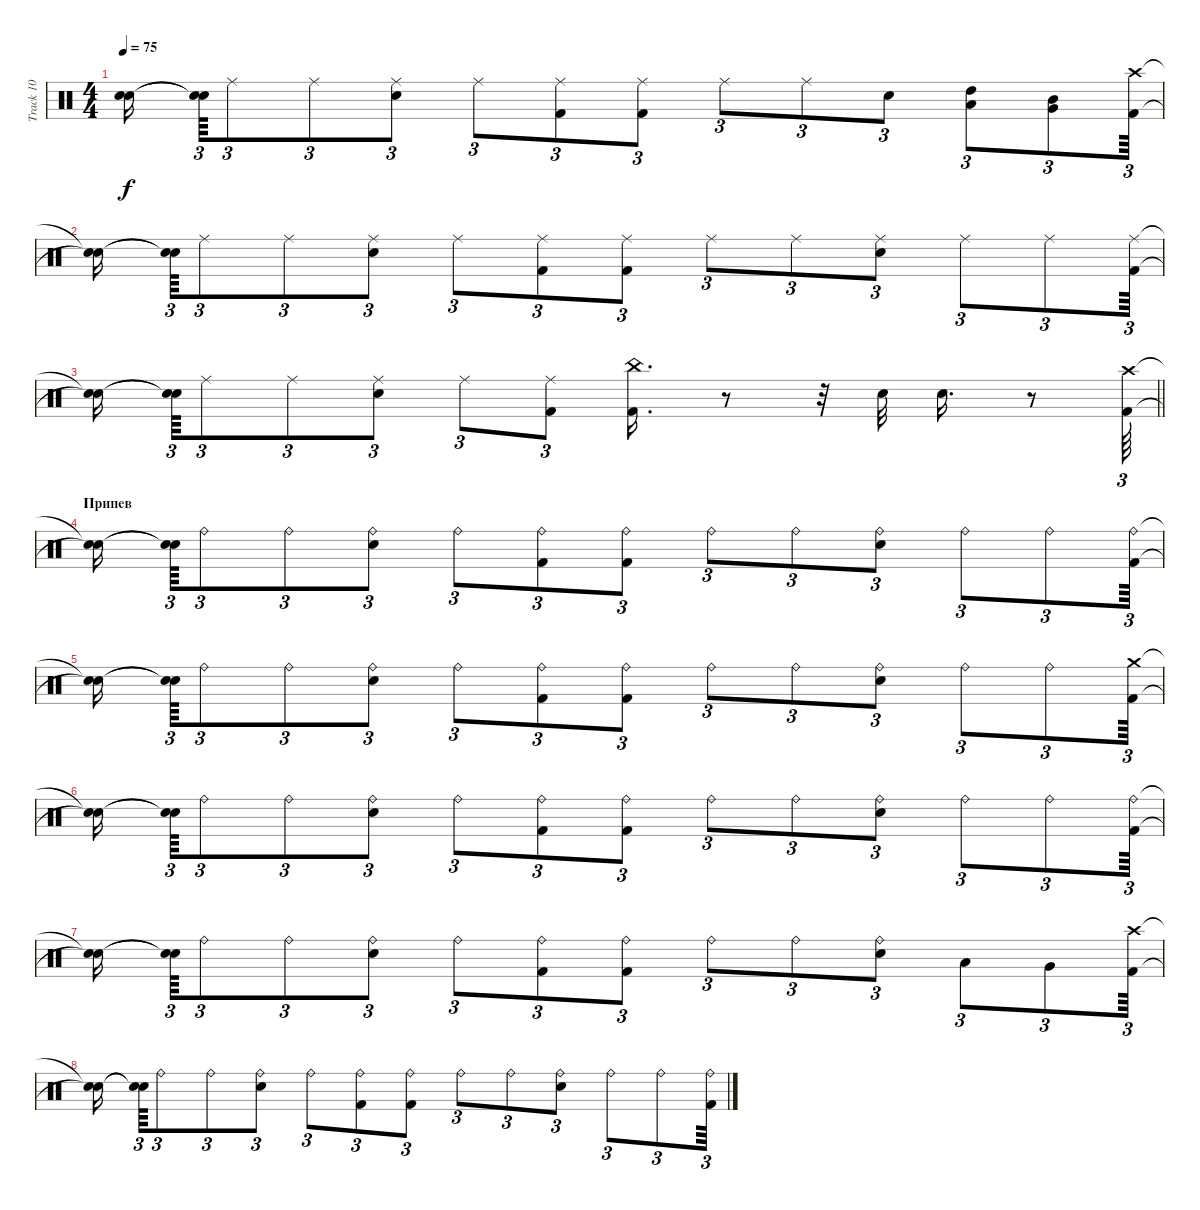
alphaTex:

\track ("Track 10" "Track 10") {instrument percussion}
\staff {score}
\articulation defaults
\ts (4 4)
\tempo 75
\clef neutral
\ks c
("Snare (hit)"{t} "Snare (hit)"{t}).16{dy f beam splitsecondary} ("Snare (hit)"{t} "Snare (hit)"{t}).64{tu (3 2)} "Ride (middle)".8{tu (3 2)} "Ride (middle)".8{tu (3 2)} ("Ride (middle)" "Snare (hit) 2").8{tu (3 2)} "Ride (middle)".8{tu (3 2)} ("Ride (middle)" "Kick (hit) 2").8{tu (3 2)} ("Ride (middle)" "Kick (hit) 2").8{tu (3 2)} "Ride (middle)".8{tu (3 2)} "Ride (middle)".8{tu (3 2)} "Snare (hit) 2".8{tu (3 2)} ("Low Tom (hit)" "High Tom (hit)").8{tu (3 2)} ("Very Low Tom (hit)" "Mid Tom (hit)").8{tu (3 2)} ("Crash high (hit)" "Kick (hit) 2").64{tu (3 2)} |
("Snare (hit)"{t} "Snare (hit)"{t}).16{beam splitsecondary} ("Snare (hit)"{t} "Snare (hit)"{t}).64{tu (3 2)} "Ride (middle)".8{tu (3 2)} "Ride (middle)".8{tu (3 2)} ("Ride (middle)" "Snare (hit) 2").8{tu (3 2)} "Ride (middle)".8{tu (3 2)} ("Ride (middle)" "Kick (hit) 2").8{tu (3 2)} ("Ride (middle)" "Kick (hit) 2").8{tu (3 2)} "Ride (middle)".8{tu (3 2)} "Ride (middle)".8{tu (3 2)} ("Ride (middle)" "Snare (hit) 2").8{tu (3 2)} "Ride (middle)".8{tu (3 2)} "Ride (middle)".8{tu (3 2)} ("Ride (middle)" "Kick (hit) 2").64{tu (3 2)} |
\barLineRight lightlight
("Snare (hit)"{t} "Snare (hit)"{t}).16{beam splitsecondary} ("Snare (hit)"{t} "Snare (hit)"{t}).64{tu (3 2)} "Ride (middle)".8{tu (3 2)} "Ride (middle)".8{tu (3 2)} ("Ride (middle)" "Snare (hit) 2").8{tu (3 2)} "Ride (middle)".8{tu (3 2)} ("Ride (middle)" "Kick (hit) 2").8{tu (3 2)} ("China (hit)" "Kick (hit) 2").16{d} r.8 r.32 "Snare (hit) 2".32 "Snare (hit) 2".16{d} r.8 ("Kick (hit) 2" "Crash high (hit)").64{tu (3 2)} |
\section ("" "Припев")
("Snare (hit)"{t} "Snare (hit)"{t}).16{beam splitsecondary} ("Snare (hit)"{t} "Snare (hit)"{t}).64{tu (3 2)} "Ride (bell)".8{tu (3 2)} "Ride (bell)".8{tu (3 2)} ("Ride (bell)" "Snare (hit) 2").8{tu (3 2)} "Ride (bell)".8{tu (3 2)} ("Ride (bell)" "Kick (hit) 2").8{tu (3 2)} ("Ride (bell)" "Kick (hit) 2").8{tu (3 2)} "Ride (bell)".8{tu (3 2)} "Ride (bell)".8{tu (3 2)} ("Ride (bell)" "Snare (hit) 2").8{tu (3 2)} "Ride (bell)".8{tu (3 2)} "Ride (bell)".8{tu (3 2)} ("Ride (bell)" "Kick (hit) 2").64{tu (3 2)} |
("Snare (hit)"{t} "Snare (hit)"{t}).16{beam splitsecondary} ("Snare (hit)"{t} "Snare (hit)"{t}).64{tu (3 2)} "Ride (bell)".8{tu (3 2)} "Ride (bell)".8{tu (3 2)} ("Ride (bell)" "Snare (hit) 2").8{tu (3 2)} "Ride (bell)".8{tu (3 2)} ("Ride (bell)" "Kick (hit) 2").8{tu (3 2)} ("Ride (bell)" "Kick (hit) 2").8{tu (3 2)} "Ride (bell)".8{tu (3 2)} "Ride (bell)".8{tu (3 2)} ("Ride (bell)" "Snare (hit) 2").8{tu (3 2)} "Ride (bell)".8{tu (3 2)} "Ride (bell)".8{tu (3 2)} ("Crash medium (hit)" "Kick (hit) 2").64{tu (3 2)} |
("Snare (hit)"{t} "Snare (hit)"{t}).16{beam splitsecondary} ("Snare (hit)"{t} "Snare (hit)"{t}).64{tu (3 2)} "Ride (bell)".8{tu (3 2)} "Ride (bell)".8{tu (3 2)} ("Ride (bell)" "Snare (hit) 2").8{tu (3 2)} "Ride (bell)".8{tu (3 2)} ("Ride (bell)" "Kick (hit) 2").8{tu (3 2)} ("Ride (bell)" "Kick (hit) 2").8{tu (3 2)} "Ride (bell)".8{tu (3 2)} "Ride (bell)".8{tu (3 2)} ("Ride (bell)" "Snare (hit) 2").8{tu (3 2)} "Ride (bell)".8{tu (3 2)} "Ride (bell)".8{tu (3 2)} ("Ride (bell)" "Kick (hit) 2").64{tu (3 2)} |
("Snare (hit)"{t} "Snare (hit)"{t}).16{beam splitsecondary} ("Snare (hit)"{t} "Snare (hit)"{t}).64{tu (3 2)} "Ride (bell)".8{tu (3 2)} "Ride (bell)".8{tu (3 2)} ("Ride (bell)" "Snare (hit) 2").8{tu (3 2)} "Ride (bell)".8{tu (3 2)} ("Ride (bell)" "Kick (hit) 2").8{tu (3 2)} ("Ride (bell)" "Kick (hit) 2").8{tu (3 2)} "Ride (bell)".8{tu (3 2)} "Ride (bell)".8{tu (3 2)} ("Ride (bell)" "Snare (hit) 2").8{tu (3 2)} "Low Tom (hit)".8{tu (3 2)} "Very Low Tom (hit)".8{tu (3 2)} ("Crash high (hit)" "Kick (hit) 2").64{tu (3 2)} |
("Snare (hit)"{t} "Snare (hit)"{t}).16{beam splitsecondary} ("Snare (hit)"{t} "Snare (hit)"{t}).64{tu (3 2)} "Ride (bell)".8{tu (3 2)} "Ride (bell)".8{tu (3 2)} ("Ride (bell)" "Snare (hit) 2").8{tu (3 2)} "Ride (bell)".8{tu (3 2)} ("Ride (bell)" "Kick (hit) 2").8{tu (3 2)} ("Ride (bell)" "Kick (hit) 2").8{tu (3 2)} "Ride (bell)".8{tu (3 2)} "Ride (bell)".8{tu (3 2)} ("Ride (bell)" "Snare (hit) 2").8{tu (3 2)} "Ride (bell)".8{tu (3 2)} "Ride (bell)".8{tu (3 2)} ("Ride (bell)" "Kick (hit) 2").64{tu (3 2)}
